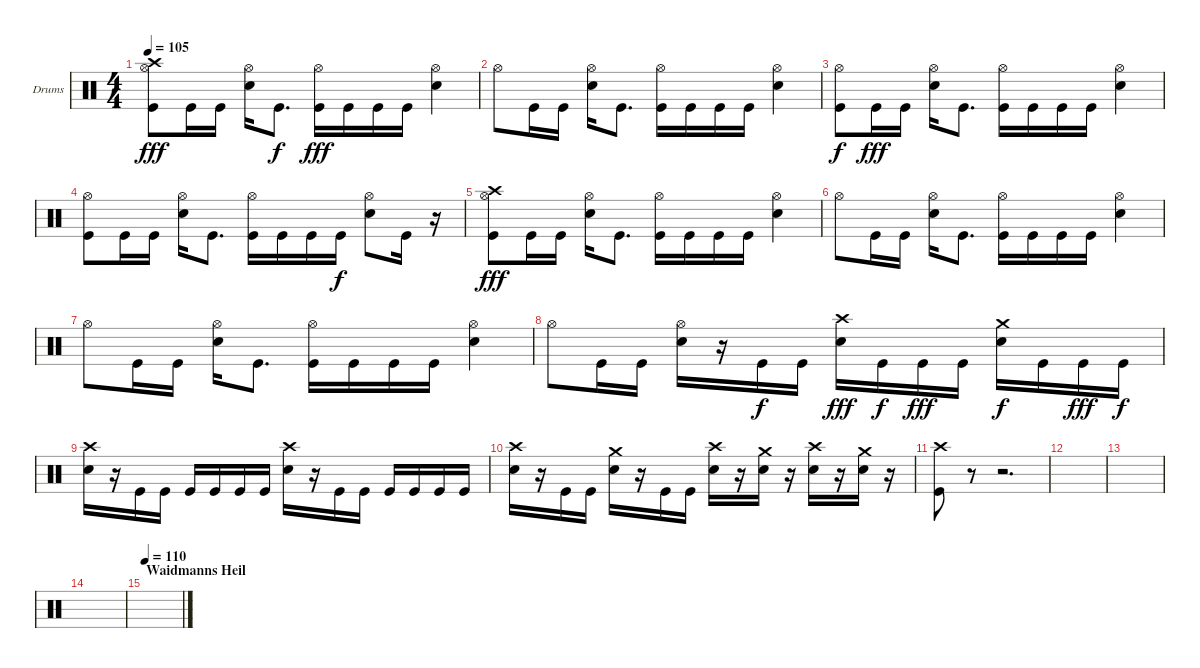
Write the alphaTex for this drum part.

\bracketExtendMode groupsimilarinstruments
\firstSystemTrackNameOrientation horizontal
\otherSystemsTrackNameOrientation horizontal
\track ("Drumkit (Christoph)" "Drums") {instrument percussion}
\staff {score}
\articulation defaults
\ts (4 4)
\tempo 105
\clef neutral
\ks c
("Crash high (hit)" "Kick (hit)" "Hi-Hat (open)").8{dy fff} "Kick (hit)".16 "Kick (hit)".16 ("Hi-Hat (open)" "Snare (hit) 2").16 "Kick (hit)".8{d dy f} ("Hi-Hat (open)" "Kick (hit)").16{dy fff} "Kick (hit)".16 "Kick (hit)".16 "Kick (hit)".16 ("Hi-Hat (open)" "Snare (hit) 2").4 |
"Hi-Hat (open)".8 "Kick (hit)".16 "Kick (hit)".16 ("Hi-Hat (open)" "Snare (hit) 2").16 "Kick (hit)".8{d} ("Hi-Hat (open)" "Kick (hit)").16 "Kick (hit)".16 "Kick (hit)".16 "Kick (hit)".16 ("Hi-Hat (open)" "Snare (hit) 2").4 |
("Kick (hit)" "Hi-Hat (open)").8{dy f} "Kick (hit)".16{dy fff} "Kick (hit)".16 ("Hi-Hat (open)" "Snare (hit) 2").16 "Kick (hit)".8{d} ("Hi-Hat (open)" "Kick (hit)").16 "Kick (hit)".16 "Kick (hit)".16 "Kick (hit)".16 ("Hi-Hat (open)" "Snare (hit) 2").4 |
("Kick (hit)" "Hi-Hat (open)").8 "Kick (hit)".16 "Kick (hit)".16 ("Hi-Hat (open)" "Snare (hit) 2").16 "Kick (hit)".8{d} ("Hi-Hat (open)" "Kick (hit)").16 "Kick (hit)".16 "Kick (hit)".16 "Kick (hit)".16{dy f} ("Hi-Hat (open)" "Snare (hit) 2").8 "Kick (hit)".16 r.16 |
("Crash high (hit)" "Kick (hit)" "Hi-Hat (open)").8{dy fff} "Kick (hit)".16 "Kick (hit)".16 ("Hi-Hat (open)" "Snare (hit) 2").16 "Kick (hit)".8{d} ("Hi-Hat (open)" "Kick (hit)").16 "Kick (hit)".16 "Kick (hit)".16 "Kick (hit)".16 ("Hi-Hat (open)" "Snare (hit) 2").4 |
"Hi-Hat (open)".8 "Kick (hit)".16 "Kick (hit)".16 ("Hi-Hat (open)" "Snare (hit) 2").16 "Kick (hit)".8{d} ("Hi-Hat (open)" "Kick (hit)").16 "Kick (hit)".16 "Kick (hit)".16 "Kick (hit)".16 ("Hi-Hat (open)" "Snare (hit) 2").4 |
"Hi-Hat (open)".8 "Kick (hit)".16 "Kick (hit)".16 ("Hi-Hat (open)" "Snare (hit) 2").16 "Kick (hit)".8{d} ("Hi-Hat (open)" "Kick (hit)").16 "Kick (hit)".16 "Kick (hit)".16 "Kick (hit)".16 ("Hi-Hat (open)" "Snare (hit) 2").4 |
"Hi-Hat (open)".8 "Kick (hit)".16 "Kick (hit)".16 ("Hi-Hat (open)" "Snare (hit) 2").16 r.16 "Kick (hit)".16{dy f} "Kick (hit)".16 ("Crash high (hit)" "Snare (hit) 2").16{dy fff} "Kick (hit)".16{dy f} "Kick (hit)".16{dy fff} "Kick (hit)".16 ("Crash medium (hit)" "Snare (hit) 2").16{dy f} "Kick (hit)".16 "Kick (hit)".16{dy fff} "Kick (hit)".16{dy f} |
("Crash high (hit)" "Snare (hit) 2").16 r.16 "Kick (hit)".16 "Kick (hit)".16 "Kick (hit)".16 "Kick (hit)".16 "Kick (hit)".16 "Kick (hit)".16 ("Crash high (hit)" "Snare (hit) 2").16 r.16 "Kick (hit)".16 "Kick (hit)".16 "Kick (hit)".16 "Kick (hit)".16 "Kick (hit)".16 "Kick (hit)".16 |
("Crash high (hit)" "Snare (hit) 2").16 r.16 "Kick (hit)".16 "Kick (hit)".16 ("Crash medium (hit)" "Snare (hit) 2").16 r.16 "Kick (hit)".16 "Kick (hit)".16 ("Crash high (hit)" "Snare (hit) 2").16 r.16 ("Crash medium (hit)" "Snare (hit) 2").16 r.16 ("Crash high (hit)" "Snare (hit) 2").16 r.16 ("Crash medium (hit)" "Snare (hit) 2").16 r.16 |
("Crash high (hit)" "Kick (hit)").8 r.8 r.2{d} |
|
|
|
\section ("" "Waidmanns Heil")
\tempo 110
